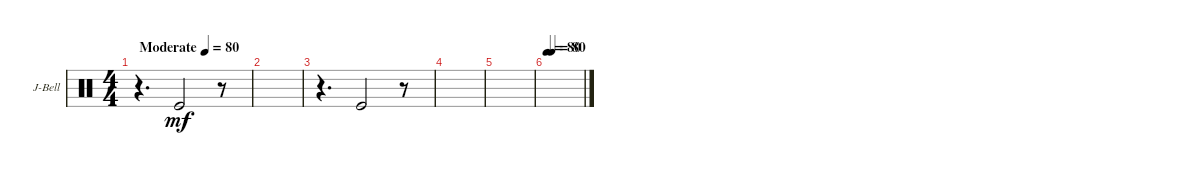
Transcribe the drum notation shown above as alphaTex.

\bracketExtendMode groupsimilarinstruments
\firstSystemTrackNameOrientation horizontal
\otherSystemsTrackNameOrientation horizontal
\track ("Jingle Bell" "J-Bell") {instrument percussion}
\staff {score}
\articulation defaults
\ts (4 4)
\beaming (8 2 2 2 2)
\tempo (80 "Moderate")
\clef neutral
\scale
0.474178
\ks c
r.4{d dy mf} "Kick (hit)".2 r.8 |
\scale
0.262911 |
\scale
0.262911 r.4{d} "Kick (hit)".2 r.8 |
\scale
0.333333 |
\scale
0.333333 |
\tempo 80
\tempo (80 0.13125)
\scale
0.333333 |
\scale
0.333333 |
\scale
0.333333 |
\scale
0.333333 |
\scale
0.333333 |
\scale
0.333333 |
\scale
0.333333 |
\scale
0.333333 |
\scale
0.333333 |
\scale
0.333333 |
\scale
0.333333
